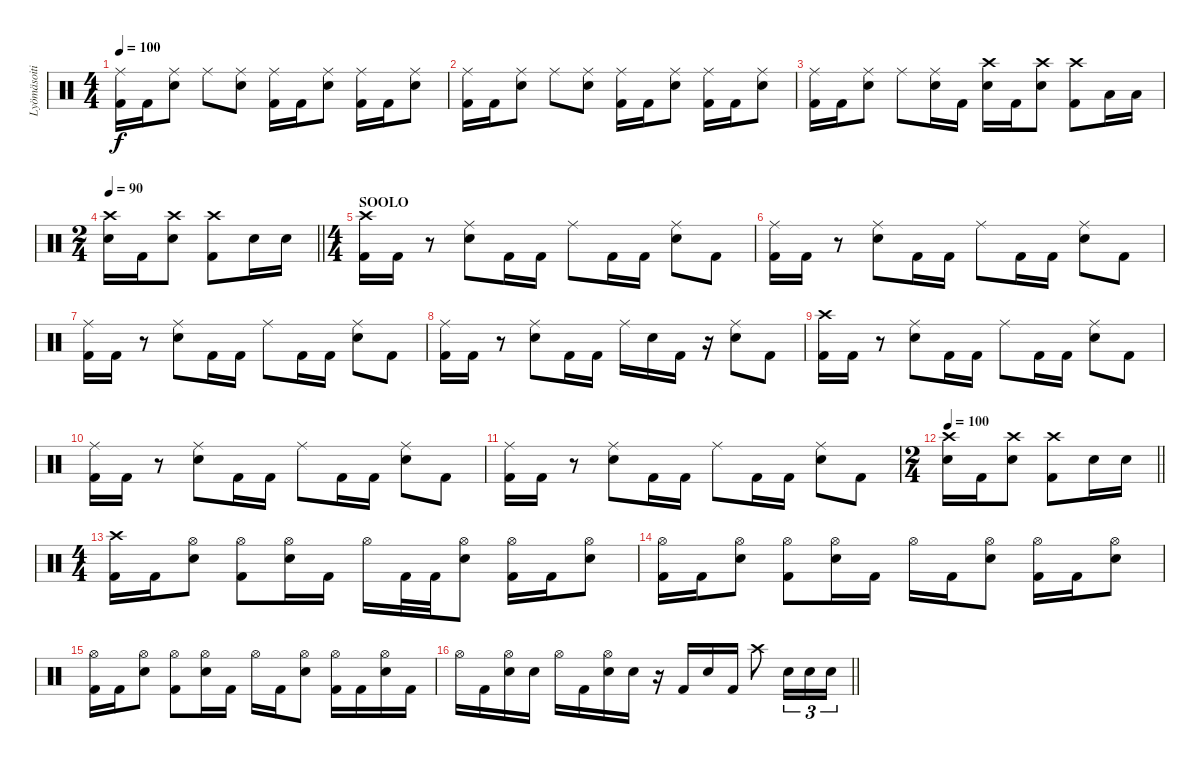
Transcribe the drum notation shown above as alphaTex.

\track ("Lyömäsoitin" "Lyömäsoiti") {instrument percussion}
\staff {score}
\articulation defaults
\ts (4 4)
\tempo 100
\clef neutral
\ks c
("Ride (middle)" "Kick (hit) 2").16{dy f} "Kick (hit) 2".16 ("Ride (middle)" "Snare (hit) 2").8 "Ride (middle)".8 ("Ride (middle)" "Snare (hit) 2").8 ("Ride (middle)" "Kick (hit) 2").16 "Kick (hit) 2".16 ("Ride (middle)" "Snare (hit) 2").8 ("Ride (middle)" "Kick (hit) 2").16 "Kick (hit) 2".16 ("Ride (middle)" "Snare (hit) 2").8 |
("Ride (middle)" "Kick (hit) 2").16 "Kick (hit) 2".16 ("Ride (middle)" "Snare (hit) 2").8 "Ride (middle)".8 ("Ride (middle)" "Snare (hit) 2").8 ("Ride (middle)" "Kick (hit) 2").16 "Kick (hit) 2".16 ("Ride (middle)" "Snare (hit) 2").8 ("Ride (middle)" "Kick (hit) 2").16 "Kick (hit) 2".16 ("Ride (middle)" "Snare (hit) 2").8 |
("Ride (middle)" "Kick (hit) 2").16 "Kick (hit) 2".16 ("Ride (middle)" "Snare (hit) 2").8 "Ride (middle)".8 ("Ride (middle)" "Snare (hit) 2").16 "Kick (hit) 2".16 ("Crash high (hit)" "Snare (hit) 2").16 "Kick (hit) 2".16 ("Crash high (hit)" "Snare (hit) 2").8 ("Crash high (hit)" "Kick (hit) 2").8 "Low Floor Tom (hit)".16 "Low Floor Tom (hit)".16 |
\ts (2 4)
\tempo 90
\barLineRight lightlight
("Crash high (hit)" "Snare (hit) 2").16 "Kick (hit) 2".16 ("Crash high (hit)" "Snare (hit) 2").8 ("Crash high (hit)" "Kick (hit) 2").8 "Snare (hit) 2".16 "Snare (hit) 2".16 |
\ts (4 4)
\section ("" "SOOLO")
("Crash high (hit)" "Kick (hit) 2").16 "Kick (hit) 2".16 r.8 ("Ride (middle)" "Snare (hit) 2").8 "Kick (hit) 2".16 "Kick (hit) 2".16 "Ride (middle)".8 "Kick (hit) 2".16 "Kick (hit) 2".16 ("Ride (middle)" "Snare (hit) 2").8 "Kick (hit) 2".8 |
("Ride (middle)" "Kick (hit) 2").16 "Kick (hit) 2".16 r.8 ("Ride (middle)" "Snare (hit) 2").8 "Kick (hit) 2".16 "Kick (hit) 2".16 "Ride (middle)".8 "Kick (hit) 2".16 "Kick (hit) 2".16 ("Ride (middle)" "Snare (hit) 2").8 "Kick (hit) 2".8 |
("Ride (middle)" "Kick (hit) 2").16 "Kick (hit) 2".16 r.8 ("Ride (middle)" "Snare (hit) 2").8 "Kick (hit) 2".16 "Kick (hit) 2".16 "Ride (middle)".8 "Kick (hit) 2".16 "Kick (hit) 2".16 ("Ride (middle)" "Snare (hit) 2").8 "Kick (hit) 2".8 |
("Ride (middle)" "Kick (hit) 2").16 "Kick (hit) 2".16 r.8 ("Ride (middle)" "Snare (hit) 2").8 "Kick (hit) 2".16 "Kick (hit) 2".16 "Ride (middle)".16 "Snare (hit) 2".16 "Kick (hit) 2".16 r.16 ("Ride (middle)" "Snare (hit) 2").8 "Kick (hit) 2".8 |
("Crash high (hit)" "Kick (hit) 2").16 "Kick (hit) 2".16 r.8 ("Ride (middle)" "Snare (hit) 2").8 "Kick (hit) 2".16 "Kick (hit) 2".16 "Ride (middle)".8 "Kick (hit) 2".16 "Kick (hit) 2".16 ("Ride (middle)" "Snare (hit) 2").8 "Kick (hit) 2".8 |
("Ride (middle)" "Kick (hit) 2").16 "Kick (hit) 2".16 r.8 ("Ride (middle)" "Snare (hit) 2").8 "Kick (hit) 2".16 "Kick (hit) 2".16 "Ride (middle)".8 "Kick (hit) 2".16 "Kick (hit) 2".16 ("Ride (middle)" "Snare (hit) 2").8 "Kick (hit) 2".8 |
("Ride (middle)" "Kick (hit) 2").16 "Kick (hit) 2".16 r.8 ("Ride (middle)" "Snare (hit) 2").8 "Kick (hit) 2".16 "Kick (hit) 2".16 "Ride (middle)".8 "Kick (hit) 2".16 "Kick (hit) 2".16 ("Ride (middle)" "Snare (hit) 2").8 "Kick (hit) 2".8 |
\ts (2 4)
\tempo 100
\barLineRight lightlight
("Crash high (hit)" "Snare (hit) 2").16 "Kick (hit) 2".16 ("Crash high (hit)" "Snare (hit) 2").8 ("Crash high (hit)" "Kick (hit) 2").8 "Snare (hit) 2".16 "Snare (hit) 2".16 |
\ts (4 4)
("Crash high (hit)" "Kick (hit) 2").16 "Kick (hit) 2".16 ("Hi-Hat (open)" "Snare (hit) 2").8 ("Hi-Hat (open)" "Kick (hit) 2").8 ("Hi-Hat (open)" "Snare (hit) 2").16 "Kick (hit) 2".16 "Hi-Hat (open)".16 "Kick (hit) 2".32 "Kick (hit) 2".32 ("Hi-Hat (open)" "Snare (hit) 2").8 ("Hi-Hat (open)" "Kick (hit) 2").16 "Kick (hit) 2".16 ("Hi-Hat (open)" "Snare (hit) 2").8 |
("Hi-Hat (open)" "Kick (hit) 2").16 "Kick (hit) 2".16 ("Hi-Hat (open)" "Snare (hit) 2").8 ("Hi-Hat (open)" "Kick (hit) 2").8 ("Hi-Hat (open)" "Snare (hit) 2").16 "Kick (hit) 2".16 "Hi-Hat (open)".16 "Kick (hit) 2".16 ("Hi-Hat (open)" "Snare (hit) 2").8 ("Hi-Hat (open)" "Kick (hit) 2").16 "Kick (hit) 2".16 ("Hi-Hat (open)" "Snare (hit) 2").8 |
("Hi-Hat (open)" "Kick (hit) 2").16 "Kick (hit) 2".16 ("Hi-Hat (open)" "Snare (hit) 2").8 ("Hi-Hat (open)" "Kick (hit) 2").8 ("Hi-Hat (open)" "Snare (hit) 2").16 "Kick (hit) 2".16 "Hi-Hat (open)".16 "Kick (hit) 2".16 ("Hi-Hat (open)" "Snare (hit) 2").8 ("Hi-Hat (open)" "Kick (hit) 2").16 "Kick (hit) 2".16 ("Hi-Hat (open)" "Snare (hit) 2").16 "Kick (hit) 2".16 |
\barLineRight lightlight "Hi-Hat (open)".16 "Kick (hit) 2".16
("Hi-Hat (open)" "Snare (hit) 2").16 "Snare (hit) 2".16 "Hi-Hat (open)".16 "Kick (hit) 2".16 ("Hi-Hat (open)" "Snare (hit) 2").16 "Snare (hit) 2".16 r.16 "Kick (hit) 2".16 "Snare (hit) 2".16 "Kick (hit) 2".16 "Crash high (hit)".8 "Snare (hit) 2".16{tu (3 2)} "Snare (hit) 2".16{tu (3 2)} "Snare (hit) 2".16{tu (3 2)}
